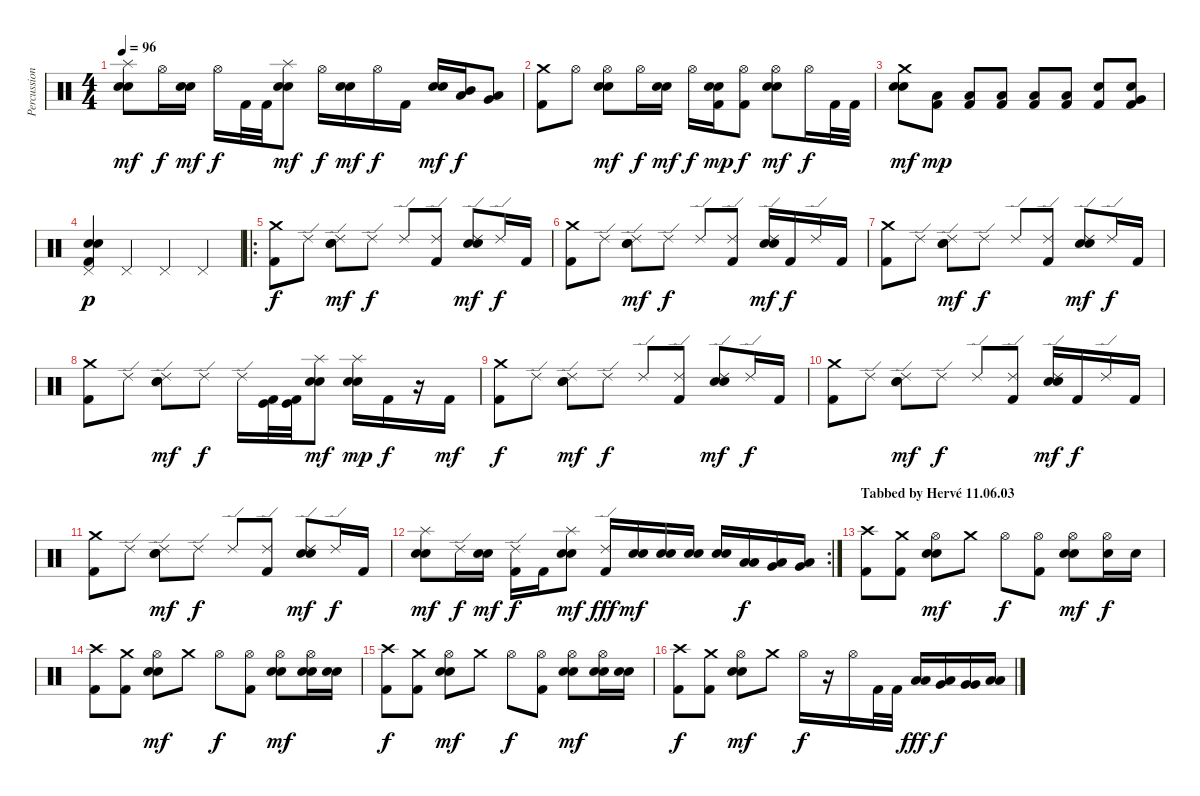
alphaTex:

\track ("Percussions" "Percussion") {instrument percussion}
\staff {score}
\articulation defaults
\ts (4 4)
\tempo 96
\clef neutral
\ks c
("Splash (hit)" "Snare (hit) 2" "Electric Snare (hit)").8{dy mf} "Hi-Hat (open)".16{dy f} ("Snare (hit) 2" "Electric Snare (hit)").16{dy mf} "Hi-Hat (open)".16{dy f} "Kick (hit) 2".32 "Kick (hit) 2".32 ("Splash (hit)" "Snare (hit) 2" "Electric Snare (hit)").8{dy mf} "Hi-Hat (open)".16{dy f} ("Snare (hit) 2" "Electric Snare (hit)").16{dy mf} "Hi-Hat (open)".16{dy f} "Kick (hit) 2".16 ("Snare (hit) 2" "Electric Snare (hit)").16{dy mf} ("Mid Tom (hit)" "Low Tom (hit)").16{dy f} ("Low Tom (hit)" "Very Low Tom (hit)").8 |
("Crash medium (hit)" "Kick (hit) 2").8 "Hi-Hat (open)".8 ("Hi-Hat (open)" "Snare (hit) 2" "Electric Snare (hit)").8{dy mf} "Hi-Hat (open)".16{dy f} ("Snare (hit) 2" "Electric Snare (hit)").16{dy mf} "Hi-Hat (open)".16{dy f} ("Snare (hit) 2" "Electric Snare (hit)" "Kick (hit) 2").16{dy mp} ("Hi-Hat (open)" "Kick (hit) 2").8{dy f} ("Hi-Hat (open)" "Snare (hit) 2" "Electric Snare (hit)").8{dy mf} "Hi-Hat (open)".16{dy f} "Kick (hit) 2".32 "Kick (hit) 2".32 |
("Crash medium (hit)" "Snare (hit) 2" "Electric Snare (hit)").8{dy mf} ("Low Floor Tom (hit)" "Kick (hit) 2").8{dy mp} ("Low Floor Tom (hit)" "Kick (hit) 2").8 ("Low Floor Tom (hit)" "Kick (hit) 2").8 ("Low Floor Tom (hit)" "Kick (hit) 2").8 ("Low Floor Tom (hit)" "Kick (hit) 2").8 ("Electric Snare (hit)" "Kick (hit) 2").8 ("Very Low Tom (hit)" "Electric Snare (hit)" "Kick (hit) 2").8 |
("Pedal Hi-Hat (hit)" "Snare (hit) 2" "Electric Snare (hit)" "Kick (hit) 2").4{dy p} "Pedal Hi-Hat (hit)".4 "Pedal Hi-Hat (hit)".4 "Pedal Hi-Hat (hit)".4 |
\ro
("Crash medium (hit)" "Kick (hit) 2").8{dy f} "Ride (edge) 2".8 ("Ride (edge) 2" "Snare (hit) 2" "Electric Snare (hit)").8{dy mf} "Ride (edge) 2".8{dy f} "Ride (edge) 2".8 ("Ride (edge) 2" "Kick (hit) 2").8 ("Ride (edge) 2" "Snare (hit) 2" "Electric Snare (hit)").8{dy mf} "Ride (edge) 2".16{dy f} "Kick (hit) 2".16 |
("Crash medium (hit)" "Kick (hit) 2").8 "Ride (edge) 2".8 ("Ride (edge) 2" "Snare (hit) 2" "Electric Snare (hit)").8{dy mf} "Ride (edge) 2".8{dy f} "Ride (edge) 2".8 ("Ride (edge) 2" "Kick (hit) 2").8 ("Ride (edge) 2" "Snare (hit) 2" "Electric Snare (hit)").16{dy mf} "Kick (hit) 2".16{dy f} "Ride (edge) 2".16 "Kick (hit) 2".16 |
("Crash medium (hit)" "Kick (hit) 2").8 "Ride (edge) 2".8 ("Ride (edge) 2" "Snare (hit) 2" "Electric Snare (hit)").8{dy mf} "Ride (edge) 2".8{dy f} "Ride (edge) 2".8 ("Ride (edge) 2" "Kick (hit) 2").8 ("Ride (edge) 2" "Snare (hit) 2" "Electric Snare (hit)").8{dy mf} "Ride (edge) 2".16{dy f} "Kick (hit) 2".16 |
("Crash medium (hit)" "Kick (hit) 2").8 "Ride (edge) 2".8 ("Ride (edge) 2" "Snare (hit) 2" "Electric Snare (hit)").8{dy mf} "Ride (edge) 2".8{dy f} "Ride (edge) 2".16 ("Kick (hit)" "Kick (hit) 2").32 ("Kick (hit)" "Kick (hit) 2").32 ("Splash (hit)" "Snare (hit) 2" "Electric Snare (hit)").8{dy mf} ("Splash (hit)" "Snare (hit) 2" "Electric Snare (hit)").16{dy mp} "Kick (hit) 2".16{dy f} r.16 "Kick (hit) 2".16{dy mf} |
("Crash medium (hit)" "Kick (hit) 2").8{dy f} "Ride (edge) 2".8 ("Ride (edge) 2" "Snare (hit) 2" "Electric Snare (hit)").8{dy mf} "Ride (edge) 2".8{dy f} "Ride (edge) 2".8 ("Ride (edge) 2" "Kick (hit) 2").8 ("Ride (edge) 2" "Snare (hit) 2" "Electric Snare (hit)").8{dy mf} "Ride (edge) 2".16{dy f} "Kick (hit) 2".16 |
("Crash medium (hit)" "Kick (hit) 2").8 "Ride (edge) 2".8 ("Ride (edge) 2" "Snare (hit) 2" "Electric Snare (hit)").8{dy mf} "Ride (edge) 2".8{dy f} "Ride (edge) 2".8 ("Ride (edge) 2" "Kick (hit) 2").8 ("Ride (edge) 2" "Snare (hit) 2" "Electric Snare (hit)").16{dy mf} "Kick (hit) 2".16{dy f} "Ride (edge) 2".16 "Kick (hit) 2".16 |
("Crash medium (hit)" "Kick (hit) 2").8 "Ride (edge) 2".8 ("Ride (edge) 2" "Snare (hit) 2" "Electric Snare (hit)").8{dy mf} "Ride (edge) 2".8{dy f} "Ride (edge) 2".8 ("Ride (edge) 2" "Kick (hit) 2").8 ("Ride (edge) 2" "Snare (hit) 2" "Electric Snare (hit)").8{dy mf} "Ride (edge) 2".16{dy f} "Kick (hit) 2".16 |
\rc 2
("Splash (hit)" "Snare (hit) 2" "Electric Snare (hit)").8{dy mf} "Ride (edge) 2".16{dy f} ("Snare (hit) 2" "Electric Snare (hit)").16{dy mf} ("Ride (edge) 2" "Kick (hit) 2").16{dy f} "Kick (hit) 2".16 ("Splash (hit)" "Snare (hit) 2" "Electric Snare (hit)").8{dy mf} ("Ride (edge) 2" "Kick (hit) 2").16{dy fff} ("Snare (hit) 2" "Electric Snare (hit)").16{dy mf} ("Snare (hit) 2" "Electric Snare (hit)").16 ("Snare (hit) 2" "Electric Snare (hit)").16 ("Snare (hit) 2" "Electric Snare (hit)").16 ("Low Tom (hit)" "Low Tom (hit)").16{dy f} ("Low Tom (hit)" "Very Low Tom (hit)").16 ("Very Low Tom (hit)" "Low Floor Tom (hit)").16 |
\section ("" "Tabbed by Hervé 11.06.03")
("Crash high (hit)" "Kick (hit) 2").8 ("Crash medium (hit)" "Kick (hit) 2").8 ("Hi-Hat (open)" "Snare (hit) 2" "Electric Snare (hit)").8{dy mf} "Crash medium (hit)".8 "Hi-Hat (open)".8{dy f} ("Hi-Hat (open)" "Kick (hit) 2").8 ("Hi-Hat (open)" "Snare (hit) 2" "Electric Snare (hit)").8{dy mf} ("Hi-Hat (open)" "Snare (hit) 2").16{dy f} "Snare (hit) 2".16 |
("Crash high (hit)" "Kick (hit) 2").8 ("Crash medium (hit)" "Kick (hit) 2").8 ("Hi-Hat (open)" "Snare (hit) 2" "Electric Snare (hit)").8{dy mf} "Crash medium (hit)".8 "Hi-Hat (open)".8{dy f} ("Hi-Hat (open)" "Kick (hit) 2").8 ("Hi-Hat (open)" "Snare (hit) 2" "Electric Snare (hit)").8{dy mf} ("Hi-Hat (open)" "Snare (hit) 2" "Electric Snare (hit)").16 ("Snare (hit) 2" "Electric Snare (hit)").16 |
("Crash high (hit)" "Kick (hit) 2").8{dy f} ("Crash medium (hit)" "Kick (hit) 2").8 ("Hi-Hat (open)" "Snare (hit) 2" "Electric Snare (hit)").8{dy mf} "Crash medium (hit)".8 "Hi-Hat (open)".8{dy f} ("Hi-Hat (open)" "Kick (hit) 2").8 ("Hi-Hat (open)" "Snare (hit) 2" "Electric Snare (hit)").8{dy mf} ("Hi-Hat (open)" "Snare (hit) 2" "Electric Snare (hit)").16 ("Snare (hit) 2" "Electric Snare (hit)").16 |
("Crash high (hit)" "Kick (hit) 2").8{dy f} ("Crash medium (hit)" "Kick (hit) 2").8 ("Hi-Hat (open)" "Snare (hit) 2" "Electric Snare (hit)").8{dy mf} "Crash medium (hit)".8 "Hi-Hat (open)".16{dy f} r.16 "Hi-Hat (open)".16 "Kick (hit) 2".32 "Kick (hit) 2".32 ("Low Tom (hit)" "Low Tom (hit)").16{dy fff} ("Low Tom (hit)" "Very Low Tom (hit)").16{dy f} ("Very Low Tom (hit)" "Very Low Tom (hit)").16 ("Low Floor Tom (hit)" "Low Floor Tom (hit)").16
